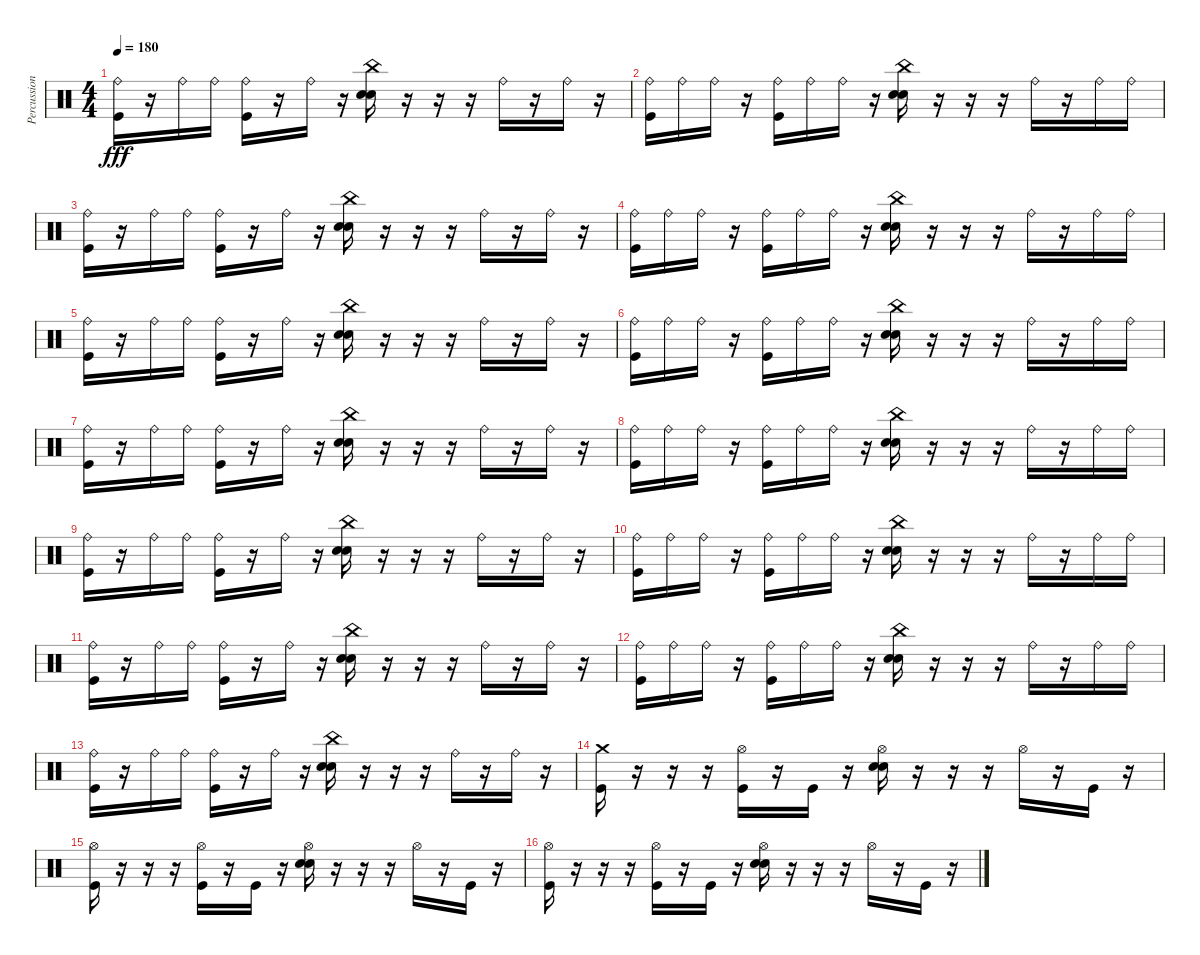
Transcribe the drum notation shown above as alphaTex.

\track ("Percussion" "Percussion") {instrument percussion}
\staff {score}
\articulation defaults
\ts (4 4)
\tempo 180
\clef neutral
\ks c
("Ride (bell)" "Kick (hit)").16{dy fff} r.16 "Ride (bell)".16 "Ride (bell)".16 ("Ride (bell)" "Kick (hit)").16 r.16 "Ride (bell)".16 r.16 ("China (hit)" "Snare (hit) 2" "Electric Snare (hit)").16 r.16 r.16 r.16 "Ride (bell)".16 r.16 "Ride (bell)".16 r.16 |
("Ride (bell)" "Kick (hit)").16 "Ride (bell)".16 "Ride (bell)".16 r.16 ("Ride (bell)" "Kick (hit)").16 "Ride (bell)".16 "Ride (bell)".16 r.16 ("China (hit)" "Snare (hit) 2" "Electric Snare (hit)").16 r.16 r.16 r.16 "Ride (bell)".16 r.16 "Ride (bell)".16 "Ride (bell)".16 |
("Ride (bell)" "Kick (hit)").16 r.16 "Ride (bell)".16 "Ride (bell)".16 ("Ride (bell)" "Kick (hit)").16 r.16 "Ride (bell)".16 r.16 ("China (hit)" "Snare (hit) 2" "Electric Snare (hit)").16 r.16 r.16 r.16 "Ride (bell)".16 r.16 "Ride (bell)".16 r.16 |
("Ride (bell)" "Kick (hit)").16 "Ride (bell)".16 "Ride (bell)".16 r.16 ("Ride (bell)" "Kick (hit)").16 "Ride (bell)".16 "Ride (bell)".16 r.16 ("China (hit)" "Snare (hit) 2" "Electric Snare (hit)").16 r.16 r.16 r.16 "Ride (bell)".16 r.16 "Ride (bell)".16 "Ride (bell)".16 |
("Ride (bell)" "Kick (hit)").16 r.16 "Ride (bell)".16 "Ride (bell)".16 ("Ride (bell)" "Kick (hit)").16 r.16 "Ride (bell)".16 r.16 ("China (hit)" "Snare (hit) 2" "Electric Snare (hit)").16 r.16 r.16 r.16 "Ride (bell)".16 r.16 "Ride (bell)".16 r.16 |
("Ride (bell)" "Kick (hit)").16 "Ride (bell)".16 "Ride (bell)".16 r.16 ("Ride (bell)" "Kick (hit)").16 "Ride (bell)".16 "Ride (bell)".16 r.16 ("China (hit)" "Snare (hit) 2" "Electric Snare (hit)").16 r.16 r.16 r.16 "Ride (bell)".16 r.16 "Ride (bell)".16 "Ride (bell)".16 |
("Ride (bell)" "Kick (hit)").16 r.16 "Ride (bell)".16 "Ride (bell)".16 ("Ride (bell)" "Kick (hit)").16 r.16 "Ride (bell)".16 r.16 ("China (hit)" "Snare (hit) 2" "Electric Snare (hit)").16 r.16 r.16 r.16 "Ride (bell)".16 r.16 "Ride (bell)".16 r.16 |
("Ride (bell)" "Kick (hit)").16 "Ride (bell)".16 "Ride (bell)".16 r.16 ("Ride (bell)" "Kick (hit)").16 "Ride (bell)".16 "Ride (bell)".16 r.16 ("China (hit)" "Snare (hit) 2" "Electric Snare (hit)").16 r.16 r.16 r.16 "Ride (bell)".16 r.16 "Ride (bell)".16 "Ride (bell)".16 |
("Ride (bell)" "Kick (hit)").16 r.16 "Ride (bell)".16 "Ride (bell)".16 ("Ride (bell)" "Kick (hit)").16 r.16 "Ride (bell)".16 r.16 ("China (hit)" "Snare (hit) 2" "Electric Snare (hit)").16 r.16 r.16 r.16 "Ride (bell)".16 r.16 "Ride (bell)".16 r.16 |
("Ride (bell)" "Kick (hit)").16 "Ride (bell)".16 "Ride (bell)".16 r.16 ("Ride (bell)" "Kick (hit)").16 "Ride (bell)".16 "Ride (bell)".16 r.16 ("China (hit)" "Snare (hit) 2" "Electric Snare (hit)").16 r.16 r.16 r.16 "Ride (bell)".16 r.16 "Ride (bell)".16 "Ride (bell)".16 |
("Ride (bell)" "Kick (hit)").16 r.16 "Ride (bell)".16 "Ride (bell)".16 ("Ride (bell)" "Kick (hit)").16 r.16 "Ride (bell)".16 r.16 ("China (hit)" "Snare (hit) 2" "Electric Snare (hit)").16 r.16 r.16 r.16 "Ride (bell)".16 r.16 "Ride (bell)".16 r.16 |
("Ride (bell)" "Kick (hit)").16 "Ride (bell)".16 "Ride (bell)".16 r.16 ("Ride (bell)" "Kick (hit)").16 "Ride (bell)".16 "Ride (bell)".16 r.16 ("China (hit)" "Snare (hit) 2" "Electric Snare (hit)").16 r.16 r.16 r.16 "Ride (bell)".16 r.16 "Ride (bell)".16 "Ride (bell)".16 |
("Ride (bell)" "Kick (hit)").16 r.16 "Ride (bell)".16 "Ride (bell)".16 ("Ride (bell)" "Kick (hit)").16 r.16 "Ride (bell)".16 r.16 ("China (hit)" "Snare (hit) 2" "Electric Snare (hit)").16 r.16 r.16 r.16 "Ride (bell)".16 r.16 "Ride (bell)".16 r.16 |
("Crash medium (hit)" "Kick (hit)").16 r.16 r.16 r.16 ("Hi-Hat (open)" "Kick (hit)").16 r.16 "Kick (hit)".16 r.16 ("Hi-Hat (open)" "Snare (hit) 2" "Electric Snare (hit)").16 r.16 r.16 r.16 "Hi-Hat (open)".16 r.16 "Kick (hit)".16 r.16 |
("Hi-Hat (open)" "Kick (hit)").16 r.16 r.16 r.16 ("Hi-Hat (open)" "Kick (hit)").16 r.16 "Kick (hit)".16 r.16 ("Hi-Hat (open)" "Snare (hit) 2" "Electric Snare (hit)").16 r.16 r.16 r.16 "Hi-Hat (open)".16 r.16 "Kick (hit)".16 r.16 |
("Hi-Hat (open)" "Kick (hit)").16 r.16 r.16 r.16 ("Hi-Hat (open)" "Kick (hit)").16 r.16 "Kick (hit)".16 r.16 ("Hi-Hat (open)" "Snare (hit) 2" "Electric Snare (hit)").16 r.16 r.16 r.16 "Hi-Hat (open)".16 r.16 "Kick (hit)".16 r.16
